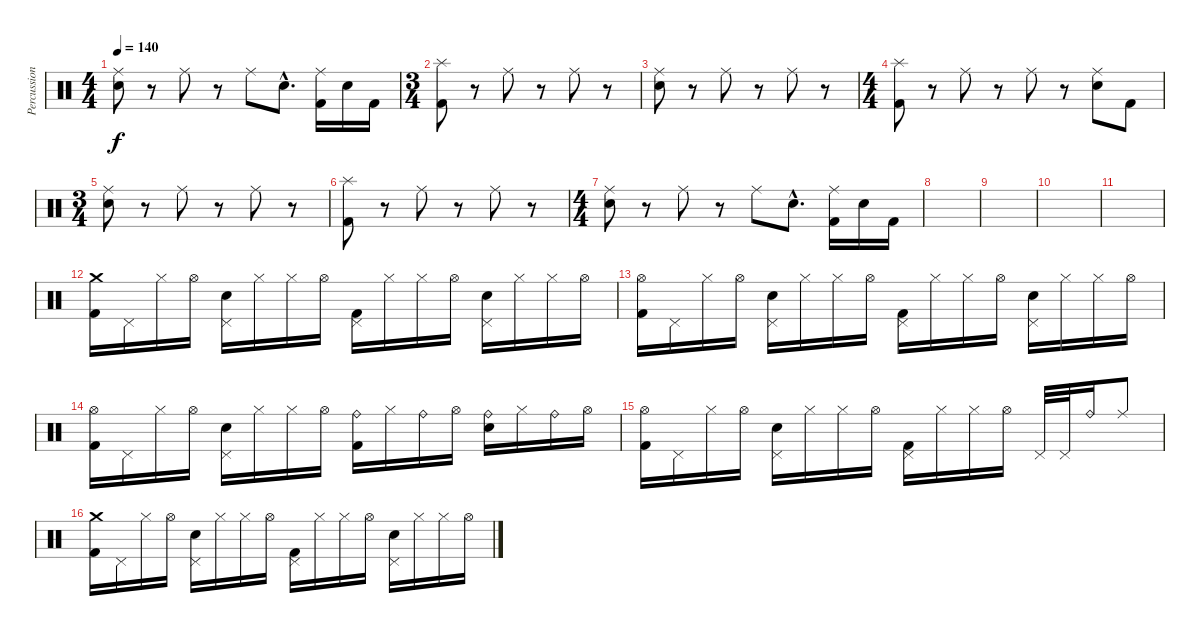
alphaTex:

\track ("Percussion" "Percussion") {instrument percussion}
\staff {score}
\articulation defaults
\ts (4 4)
\tempo 140
\clef neutral
\ks c
("Ride (middle)" "Electric Snare (hit)").8{dy f} r.8 "Ride (middle)".8 r.8 "Ride (middle)".8 "Electric Snare (hit)"{hac}.8{d} ("Ride (middle)" "Kick (hit) 2").16 "Electric Snare (hit)".16 "Kick (hit) 2".16 |
\ts (3 4)
("Splash (hit)" "Kick (hit) 2").8 r.8 "Ride (middle)".8 r.8 "Ride (middle)".8 r.8 |
("Ride (middle)" "Electric Snare (hit)").8 r.8 "Ride (middle)".8 r.8 "Ride (middle)".8 r.8 |
\ts (4 4)
("Splash (hit)" "Kick (hit) 2").8 r.8 "Ride (middle)".8 r.8 "Ride (middle)".8 r.8 ("Ride (middle)" "Electric Snare (hit)").8 "Kick (hit) 2".8 |
\ts (3 4)
("Ride (middle)" "Electric Snare (hit)").8 r.8 "Ride (middle)".8 r.8 "Ride (middle)".8 r.8 |
("Splash (hit)" "Kick (hit) 2").8 r.8 "Ride (middle)".8 r.8 "Ride (middle)".8 r.8 |
\ts (4 4)
("Ride (middle)" "Electric Snare (hit)").8 r.8 "Ride (middle)".8 r.8 "Ride (middle)".8 "Electric Snare (hit)"{hac}.8{d} ("Ride (middle)" "Kick (hit) 2").16 "Electric Snare (hit)".16 "Kick (hit) 2".16 |
|
|
|
|
("Crash medium (hit)" "Kick (hit) 2").16 "Pedal Hi-Hat (hit)".16 "Hi-Hat (closed)".16 "Hi-Hat (open)".16 ("Pedal Hi-Hat (hit)" "Electric Snare (hit)").16 "Hi-Hat (closed)".16 "Hi-Hat (closed)".16 "Hi-Hat (open)".16 ("Pedal Hi-Hat (hit)" "Kick (hit) 2").16 "Hi-Hat (closed)".16 "Hi-Hat (closed)".16 "Hi-Hat (open)".16 ("Pedal Hi-Hat (hit)" "Electric Snare (hit)").16 "Hi-Hat (closed)".16 "Hi-Hat (closed)".16 "Hi-Hat (open)".16 |
("Hi-Hat (open)" "Kick (hit) 2").16 "Pedal Hi-Hat (hit)".16 "Hi-Hat (closed)".16 "Hi-Hat (open)".16 ("Pedal Hi-Hat (hit)" "Electric Snare (hit)").16 "Hi-Hat (closed)".16 "Hi-Hat (closed)".16 "Hi-Hat (open)".16 ("Pedal Hi-Hat (hit)" "Kick (hit) 2").16 "Hi-Hat (closed)".16 "Hi-Hat (closed)".16 "Hi-Hat (open)".16 ("Pedal Hi-Hat (hit)" "Electric Snare (hit)").16 "Hi-Hat (closed)".16 "Hi-Hat (closed)".16 "Hi-Hat (open)".16 |
("Hi-Hat (open)" "Kick (hit) 2").16 "Pedal Hi-Hat (hit)".16 "Hi-Hat (closed)".16 "Hi-Hat (open)".16 ("Pedal Hi-Hat (hit)" "Electric Snare (hit)").16 "Hi-Hat (closed)".16 "Hi-Hat (closed)".16 "Hi-Hat (open)".16 ("Ride (bell)" "Kick (hit) 2").16 "Hi-Hat (closed)".16 "Ride (bell)".16 "Hi-Hat (open)".16 ("Ride (bell)" "Electric Snare (hit)").16 "Hi-Hat (closed)".16 "Ride (bell)".16 "Hi-Hat (open)".16 |
("Hi-Hat (open)" "Kick (hit) 2").16 "Pedal Hi-Hat (hit)".16 "Hi-Hat (closed)".16 "Hi-Hat (open)".16 ("Pedal Hi-Hat (hit)" "Electric Snare (hit)").16 "Hi-Hat (closed)".16 "Hi-Hat (closed)".16 "Hi-Hat (open)".16 ("Pedal Hi-Hat (hit)" "Kick (hit) 2").16 "Hi-Hat (closed)".16 "Hi-Hat (closed)".16 "Hi-Hat (open)".16 "Pedal Hi-Hat (hit)".32 "Pedal Hi-Hat (hit)".32 "Ride (bell)".16 "Ride (middle)".8 |
("Crash medium (hit)" "Kick (hit) 2").16 "Pedal Hi-Hat (hit)".16 "Hi-Hat (closed)".16 "Hi-Hat (open)".16 ("Pedal Hi-Hat (hit)" "Electric Snare (hit)").16 "Hi-Hat (closed)".16 "Hi-Hat (closed)".16 "Hi-Hat (open)".16 ("Pedal Hi-Hat (hit)" "Kick (hit) 2").16 "Hi-Hat (closed)".16 "Hi-Hat (closed)".16 "Hi-Hat (open)".16 ("Pedal Hi-Hat (hit)" "Electric Snare (hit)").16 "Hi-Hat (closed)".16 "Hi-Hat (closed)".16 "Hi-Hat (open)".16
